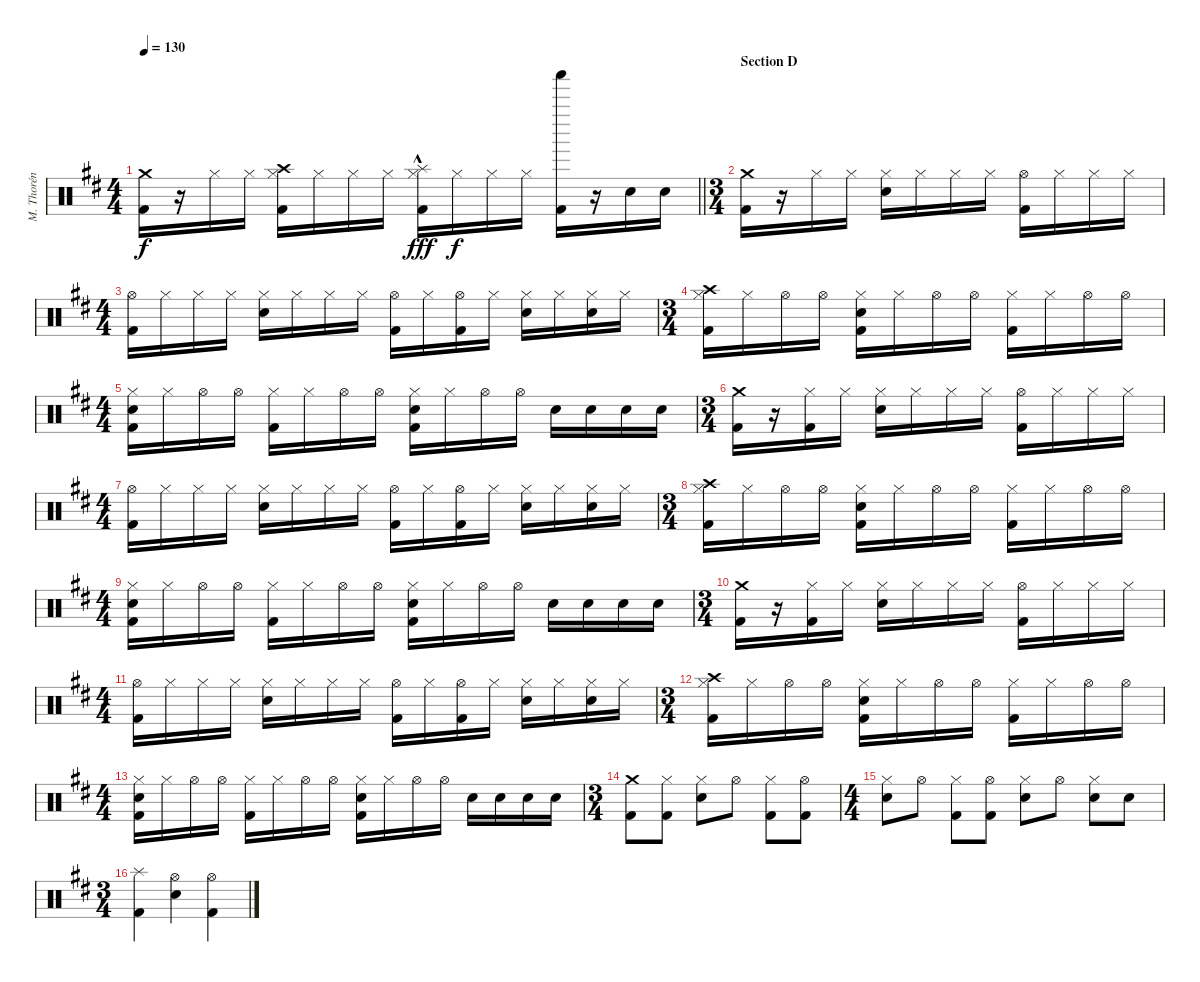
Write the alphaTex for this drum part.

\track ("M. Thorén (Drums)" "M. Thorén ") {instrument percussion}
\staff {score}
\articulation defaults
\ts (4 4)
\tempo 130
\clef neutral
\barLineRight lightlight
\ks bminor
("Crash medium (hit)" "Kick (hit) 2").16{dy f} r.16 "Hi-Hat (closed)".16 "Hi-Hat (closed)".16 ("Crash high (hit)" "Hi-Hat (closed)" "Kick (hit) 2").16 "Hi-Hat (closed)".16 "Hi-Hat (closed)".16 "Hi-Hat (closed)".16 ("Splash (hit)" "Hi-Hat (closed)"{hac} "Kick (hit) 2").16{dy fff} "Hi-Hat (closed)".16{dy f} "Hi-Hat (closed)".16 "Hi-Hat (closed)".16 ("Shaker (hit)" "Kick (hit) 2").16 r.16 "Electric Snare (hit)".16 "Electric Snare (hit)".16 |
\ts (3 4)
\section ("" "Section D")
("Crash medium (hit)" "Kick (hit) 2").16 r.16 "Hi-Hat (closed)".16 "Hi-Hat (closed)".16 ("Hi-Hat (closed)" "Electric Snare (hit)").16 "Hi-Hat (closed)".16 "Hi-Hat (closed)".16 "Hi-Hat (closed)".16 ("Hi-Hat (open)" "Kick (hit) 2").16 "Hi-Hat (closed)".16 "Hi-Hat (closed)".16 "Hi-Hat (closed)".16 |
\ts (4 4)
("Hi-Hat (open)" "Kick (hit) 2").16 "Hi-Hat (closed)".16 "Hi-Hat (closed)".16 "Hi-Hat (closed)".16 ("Hi-Hat (closed)" "Electric Snare (hit)").16 "Hi-Hat (closed)".16 "Hi-Hat (closed)".16 "Hi-Hat (closed)".16 ("Hi-Hat (open)" "Kick (hit) 2").16 "Hi-Hat (closed)".16 ("Hi-Hat (open)" "Kick (hit) 2").16 "Hi-Hat (closed)".16 ("Hi-Hat (closed)" "Electric Snare (hit)").16 "Hi-Hat (closed)".16 ("Hi-Hat (closed)" "Electric Snare (hit)").16 "Hi-Hat (closed)".16 |
\ts (3 4)
("Crash high (hit)" "Hi-Hat (closed)" "Kick (hit) 2").16 "Hi-Hat (closed)".16 "Hi-Hat (open)".16 "Hi-Hat (open)".16 ("Hi-Hat (closed)" "Electric Snare (hit)" "Kick (hit) 2").16 "Hi-Hat (closed)".16 "Hi-Hat (open)".16 "Hi-Hat (open)".16 ("Hi-Hat (closed)" "Kick (hit) 2").16 "Hi-Hat (closed)".16 "Hi-Hat (open)".16 "Hi-Hat (open)".16 |
\ts (4 4)
("Hi-Hat (closed)" "Electric Snare (hit)" "Kick (hit) 2").16 "Hi-Hat (closed)".16 "Hi-Hat (open)".16 "Hi-Hat (open)".16 ("Hi-Hat (closed)" "Kick (hit) 2").16 "Hi-Hat (closed)".16 "Hi-Hat (open)".16 "Hi-Hat (open)".16 ("Hi-Hat (closed)" "Electric Snare (hit)" "Kick (hit) 2").16 "Hi-Hat (closed)".16 "Hi-Hat (open)".16 "Hi-Hat (open)".16 "Electric Snare (hit)".16 "Electric Snare (hit)".16 "Electric Snare (hit)".16 "Electric Snare (hit)".16 |
\ts (3 4)
("Crash medium (hit)" "Kick (hit) 2").16 r.16 ("Hi-Hat (closed)" "Kick (hit) 2").16 "Hi-Hat (closed)".16 ("Hi-Hat (closed)" "Electric Snare (hit)").16 "Hi-Hat (closed)".16 "Hi-Hat (closed)".16 "Hi-Hat (closed)".16 ("Hi-Hat (open)" "Kick (hit) 2").16 "Hi-Hat (closed)".16 "Hi-Hat (closed)".16 "Hi-Hat (closed)".16 |
\ts (4 4)
("Hi-Hat (open)" "Kick (hit) 2").16 "Hi-Hat (closed)".16 "Hi-Hat (closed)".16 "Hi-Hat (closed)".16 ("Hi-Hat (closed)" "Electric Snare (hit)").16 "Hi-Hat (closed)".16 "Hi-Hat (closed)".16 "Hi-Hat (closed)".16 ("Hi-Hat (open)" "Kick (hit) 2").16 "Hi-Hat (closed)".16 ("Hi-Hat (open)" "Kick (hit) 2").16 "Hi-Hat (closed)".16 ("Hi-Hat (closed)" "Electric Snare (hit)").16 "Hi-Hat (closed)".16 ("Hi-Hat (closed)" "Electric Snare (hit)").16 "Hi-Hat (closed)".16 |
\ts (3 4)
("Crash high (hit)" "Hi-Hat (closed)" "Kick (hit) 2").16 "Hi-Hat (closed)".16 "Hi-Hat (open)".16 "Hi-Hat (open)".16 ("Hi-Hat (closed)" "Electric Snare (hit)" "Kick (hit) 2").16 "Hi-Hat (closed)".16 "Hi-Hat (open)".16 "Hi-Hat (open)".16 ("Hi-Hat (closed)" "Kick (hit) 2").16 "Hi-Hat (closed)".16 "Hi-Hat (open)".16 "Hi-Hat (open)".16 |
\ts (4 4)
("Hi-Hat (closed)" "Electric Snare (hit)" "Kick (hit) 2").16 "Hi-Hat (closed)".16 "Hi-Hat (open)".16 "Hi-Hat (open)".16 ("Hi-Hat (closed)" "Kick (hit) 2").16 "Hi-Hat (closed)".16 "Hi-Hat (open)".16 "Hi-Hat (open)".16 ("Hi-Hat (closed)" "Electric Snare (hit)" "Kick (hit) 2").16 "Hi-Hat (closed)".16 "Hi-Hat (open)".16 "Hi-Hat (open)".16 "Electric Snare (hit)".16 "Electric Snare (hit)".16 "Electric Snare (hit)".16 "Electric Snare (hit)".16 |
\ts (3 4)
("Crash medium (hit)" "Kick (hit) 2").16 r.16 ("Hi-Hat (closed)" "Kick (hit) 2").16 "Hi-Hat (closed)".16 ("Hi-Hat (closed)" "Electric Snare (hit)").16 "Hi-Hat (closed)".16 "Hi-Hat (closed)".16 "Hi-Hat (closed)".16 ("Hi-Hat (open)" "Kick (hit) 2").16 "Hi-Hat (closed)".16 "Hi-Hat (closed)".16 "Hi-Hat (closed)".16 |
\ts (4 4)
("Hi-Hat (open)" "Kick (hit) 2").16 "Hi-Hat (closed)".16 "Hi-Hat (closed)".16 "Hi-Hat (closed)".16 ("Hi-Hat (closed)" "Electric Snare (hit)").16 "Hi-Hat (closed)".16 "Hi-Hat (closed)".16 "Hi-Hat (closed)".16 ("Hi-Hat (open)" "Kick (hit) 2").16 "Hi-Hat (closed)".16 ("Hi-Hat (open)" "Kick (hit) 2").16 "Hi-Hat (closed)".16 ("Hi-Hat (closed)" "Electric Snare (hit)").16 "Hi-Hat (closed)".16 ("Hi-Hat (closed)" "Electric Snare (hit)").16 "Hi-Hat (closed)".16 |
\ts (3 4)
("Crash high (hit)" "Hi-Hat (closed)" "Kick (hit) 2").16 "Hi-Hat (closed)".16 "Hi-Hat (open)".16 "Hi-Hat (open)".16 ("Hi-Hat (closed)" "Electric Snare (hit)" "Kick (hit) 2").16 "Hi-Hat (closed)".16 "Hi-Hat (open)".16 "Hi-Hat (open)".16 ("Hi-Hat (closed)" "Kick (hit) 2").16 "Hi-Hat (closed)".16 "Hi-Hat (open)".16 "Hi-Hat (open)".16 |
\ts (4 4)
("Hi-Hat (closed)" "Electric Snare (hit)" "Kick (hit) 2").16 "Hi-Hat (closed)".16 "Hi-Hat (open)".16 "Hi-Hat (open)".16 ("Hi-Hat (closed)" "Kick (hit) 2").16 "Hi-Hat (closed)".16 "Hi-Hat (open)".16 "Hi-Hat (open)".16 ("Hi-Hat (closed)" "Electric Snare (hit)" "Kick (hit) 2").16 "Hi-Hat (closed)".16 "Hi-Hat (open)".16 "Hi-Hat (open)".16 "Electric Snare (hit)".16 "Electric Snare (hit)".16 "Electric Snare (hit)".16 "Electric Snare (hit)".16 |
\ts (3 4)
("Crash medium (hit)" "Kick (hit) 2").8 ("Hi-Hat (closed)" "Kick (hit) 2").8 ("Hi-Hat (closed)" "Electric Snare (hit)").8 "Hi-Hat (open)".8 ("Hi-Hat (closed)" "Kick (hit) 2").8 ("Hi-Hat (open)" "Kick (hit) 2").8 |
\ts (4 4)
("Hi-Hat (closed)" "Electric Snare (hit)").8 "Hi-Hat (open)".8 ("Hi-Hat (closed)" "Kick (hit) 2").8 ("Hi-Hat (open)" "Kick (hit) 2").8 ("Hi-Hat (closed)" "Electric Snare (hit)").8 "Hi-Hat (open)".8 ("Hi-Hat (closed)" "Electric Snare (hit)").8 "Electric Snare (hit)".8 |
\ts (3 4)
("Splash (hit)" "Kick (hit) 2").4 ("Hi-Hat (open)" "Electric Snare (hit)").4 ("Hi-Hat (open)" "Kick (hit) 2").4
